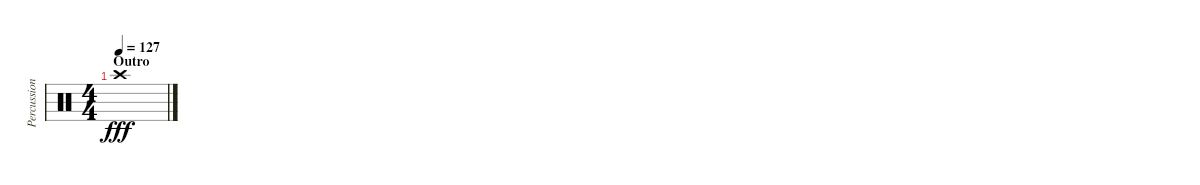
\track ("Percussion" "Percussion") {instrument percussion}
\staff {score}
\articulation defaults
\ts (4 4)
\section ("" "Outro")
\tempo 127
\clef neutral
\ks c "Crash high (hit)".1{dy fff}
